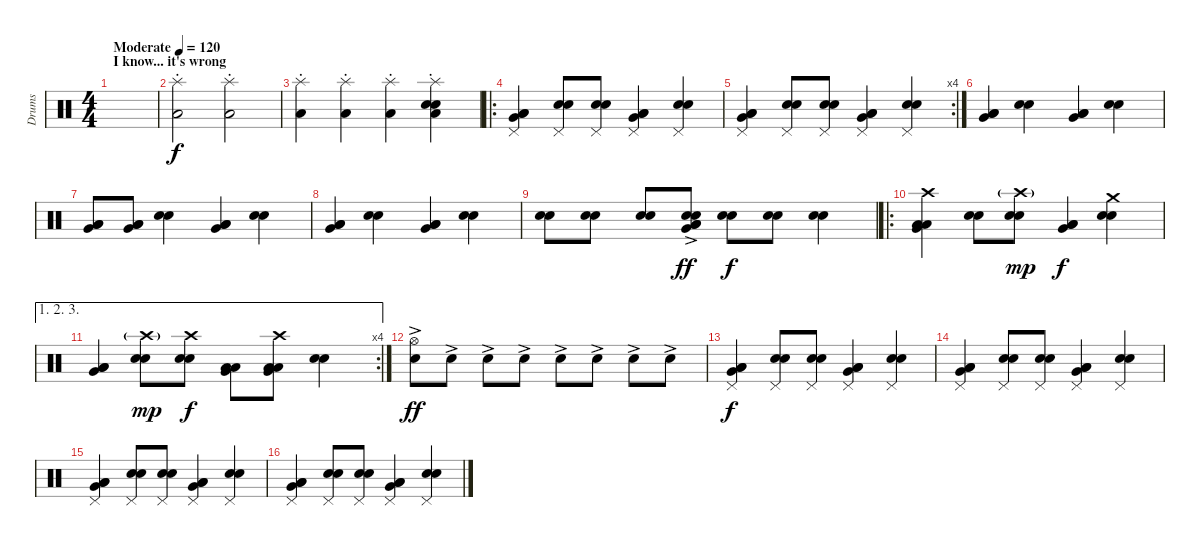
\track ("Drums" "Drums") {instrument percussion}
\staff {score}
\articulation defaults
\ts (4 4)
\section ("" "I know... it's wrong")
\tempo (120 "Moderate")
\tempo 130
\tempo (120 "Moderate")
\clef neutral
\ks c
|
("Splash (hit)"{st} "Low Tom (hit)").2 ("Splash (hit)"{st} "Low Tom (hit)").2 |
("Splash (hit)"{st} "Low Tom (hit)").4 ("Splash (hit)"{st} "Low Tom (hit)").4 ("Splash (hit)"{st} "Low Tom (hit)").4 ("Splash (hit)"{st} "Electric Snare (hit)" "Snare (hit) 2" "Low Tom (hit)").4 |
\ro
("Pedal Hi-Hat (hit)" "Low Floor Tom (hit)" "Very Low Tom (hit)" "Low Tom (hit)").4 ("Pedal Hi-Hat (hit)" "Electric Snare (hit)" "Snare (hit) 2").8 ("Pedal Hi-Hat (hit)" "Electric Snare (hit)" "Snare (hit) 2").8 ("Pedal Hi-Hat (hit)" "Low Tom (hit)" "Low Floor Tom (hit)" "Very Low Tom (hit)").4 ("Pedal Hi-Hat (hit)" "Electric Snare (hit)" "Snare (hit) 2").4 |
\rc 4
("Pedal Hi-Hat (hit)" "Low Floor Tom (hit)" "Very Low Tom (hit)" "Low Tom (hit)").4 ("Pedal Hi-Hat (hit)" "Electric Snare (hit)" "Snare (hit) 2").8 ("Pedal Hi-Hat (hit)" "Electric Snare (hit)" "Snare (hit) 2").8 ("Pedal Hi-Hat (hit)" "Low Tom (hit)" "Low Floor Tom (hit)" "Very Low Tom (hit)").4 ("Pedal Hi-Hat (hit)" "Electric Snare (hit)" "Snare (hit) 2").4 |
("Low Floor Tom (hit)" "Very Low Tom (hit)" "Low Tom (hit)").4 ("Electric Snare (hit)" "Snare (hit) 2").4 ("Low Floor Tom (hit)" "Very Low Tom (hit)" "Low Tom (hit)").4 ("Electric Snare (hit)" "Snare (hit) 2").4 |
("Low Floor Tom (hit)" "Very Low Tom (hit)" "Low Tom (hit)").8 ("Low Floor Tom (hit)" "Very Low Tom (hit)" "Low Tom (hit)").8 ("Electric Snare (hit)" "Snare (hit) 2").4 ("Low Floor Tom (hit)" "Very Low Tom (hit)" "Low Tom (hit)").4 ("Electric Snare (hit)" "Snare (hit) 2").4 |
("Low Floor Tom (hit)" "Very Low Tom (hit)" "Low Tom (hit)").4 ("Electric Snare (hit)" "Snare (hit) 2").4 ("Low Floor Tom (hit)" "Very Low Tom (hit)" "Low Tom (hit)").4 ("Electric Snare (hit)" "Snare (hit) 2").4 |
("Electric Snare (hit)" "Snare (hit) 2").8 ("Electric Snare (hit)" "Snare (hit) 2").8 ("Electric Snare (hit)" "Snare (hit) 2").8 ("Low Floor Tom (hit)"{ac} "Very Low Tom (hit)"{ac} "Low Tom (hit)"{ac} "Electric Snare (hit)"{ac} "Snare (hit) 2"{ac}).8{dy ff} ("Electric Snare (hit)" "Snare (hit) 2").8{dy f} ("Electric Snare (hit)" "Snare (hit) 2").8 ("Electric Snare (hit)" "Snare (hit) 2").4 |
\ro
("Crash high (hit)" "Low Floor Tom (hit)" "Very Low Tom (hit)" "Low Tom (hit)").4 ("Electric Snare (hit)" "Snare (hit) 2").8 ("Crash high (hit)"{g} "Electric Snare (hit)" "Snare (hit) 2").8{dy mp} ("Low Tom (hit)" "Low Floor Tom (hit)" "Very Low Tom (hit)").4{dy f} ("Crash medium (hit)" "Electric Snare (hit)" "Snare (hit) 2").4 |
\ae (1 2 3)
\rc 4
("Low Floor Tom (hit)" "Very Low Tom (hit)" "Low Tom (hit)").4 ("Crash high (hit)"{g} "Electric Snare (hit)" "Snare (hit) 2").8{dy mp} ("Crash high (hit)" "Electric Snare (hit)" "Snare (hit) 2").8{dy f} ("Low Tom (hit)" "Low Floor Tom (hit)" "Very Low Tom (hit)").8 ("Crash high (hit)" "Low Tom (hit)" "Low Floor Tom (hit)" "Very Low Tom (hit)").8 ("Electric Snare (hit)" "Snare (hit) 2").4 |
("Hi-Hat (open)" "Electric Snare (hit)"{ac}).8{dy ff} "Electric Snare (hit)"{ac}.8 "Electric Snare (hit)"{ac}.8 "Electric Snare (hit)"{ac}.8 "Electric Snare (hit)"{ac}.8 "Electric Snare (hit)"{ac}.8 "Electric Snare (hit)"{ac}.8 "Electric Snare (hit)"{ac}.8 |
("Pedal Hi-Hat (hit)" "Low Floor Tom (hit)" "Very Low Tom (hit)" "Low Tom (hit)").4{dy f} ("Pedal Hi-Hat (hit)" "Electric Snare (hit)" "Snare (hit) 2").8 ("Pedal Hi-Hat (hit)" "Electric Snare (hit)" "Snare (hit) 2").8 ("Pedal Hi-Hat (hit)" "Low Tom (hit)" "Low Floor Tom (hit)" "Very Low Tom (hit)").4 ("Pedal Hi-Hat (hit)" "Electric Snare (hit)" "Snare (hit) 2").4 |
("Pedal Hi-Hat (hit)" "Low Floor Tom (hit)" "Very Low Tom (hit)" "Low Tom (hit)").4 ("Pedal Hi-Hat (hit)" "Electric Snare (hit)" "Snare (hit) 2").8 ("Pedal Hi-Hat (hit)" "Electric Snare (hit)" "Snare (hit) 2").8 ("Pedal Hi-Hat (hit)" "Low Tom (hit)" "Low Floor Tom (hit)" "Very Low Tom (hit)").4 ("Pedal Hi-Hat (hit)" "Electric Snare (hit)" "Snare (hit) 2").4 |
("Pedal Hi-Hat (hit)" "Low Floor Tom (hit)" "Very Low Tom (hit)" "Low Tom (hit)").4 ("Pedal Hi-Hat (hit)" "Electric Snare (hit)" "Snare (hit) 2").8 ("Pedal Hi-Hat (hit)" "Electric Snare (hit)" "Snare (hit) 2").8 ("Pedal Hi-Hat (hit)" "Low Tom (hit)" "Low Floor Tom (hit)" "Very Low Tom (hit)").4 ("Pedal Hi-Hat (hit)" "Electric Snare (hit)" "Snare (hit) 2").4 |
("Pedal Hi-Hat (hit)" "Low Floor Tom (hit)" "Very Low Tom (hit)" "Low Tom (hit)").4 ("Pedal Hi-Hat (hit)" "Electric Snare (hit)" "Snare (hit) 2").8 ("Pedal Hi-Hat (hit)" "Electric Snare (hit)" "Snare (hit) 2").8 ("Pedal Hi-Hat (hit)" "Low Tom (hit)" "Low Floor Tom (hit)" "Very Low Tom (hit)").4 ("Pedal Hi-Hat (hit)" "Electric Snare (hit)" "Snare (hit) 2").4
